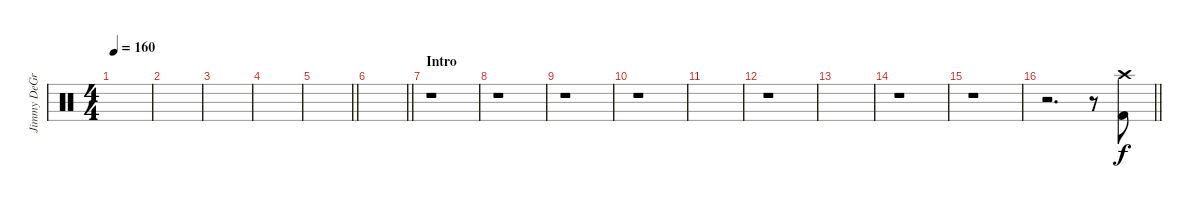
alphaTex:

\track ("Jimmy DeGrasso" "Jimmy DeGr") {instrument percussion}
\staff {score}
\articulation defaults
\ts (4 4)
\tempo 160
\clef neutral
\ks c
|
|
|
|
\barLineRight lightlight
|
\barLineRight lightlight
|
\section ("" "Intro")
r.1 |
r.1 |
r.1 |
r.1 |
|
r.1 |
|
r.1 |
r.1 |
\barLineRight lightlight
r.2{d} r.8 ("Crash high (hit)" "Kick (hit) 2").8
